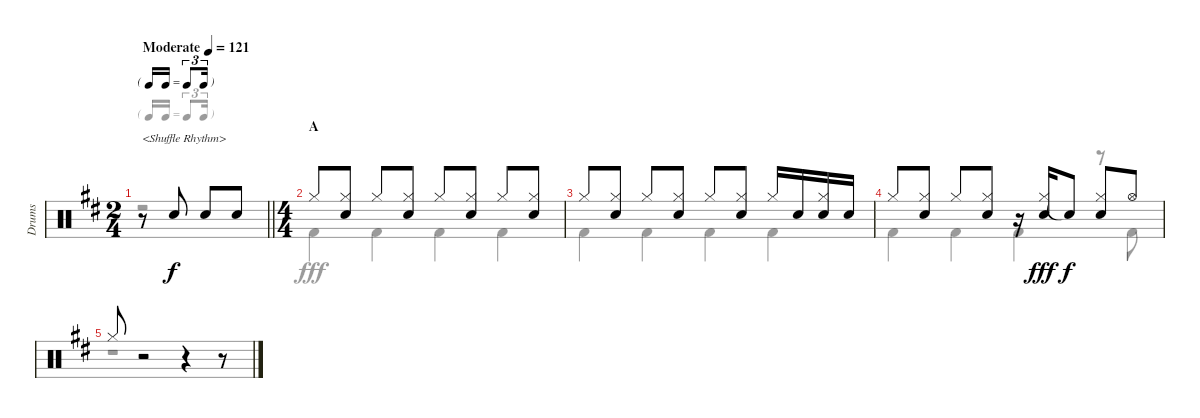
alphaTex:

\track ("Drums" "Drums") {instrument percussion}
\staff {score}
\articulation defaults
\voice
\ts (2 4)
\tf triplet16th
\tempo (121 "Moderate")
\clef neutral
\barLineRight lightlight
\ks d
r.8{txt "<Shuffle Rhythm>" dy f} "Electric Snare (hit)".8 "Electric Snare (hit)".8 "Electric Snare (hit)".8 |
\ts (4 4)
\section ("" "A")
"Hi-Hat (closed)".8 ("Hi-Hat (closed)" "Electric Snare (hit)").8 "Hi-Hat (closed)".8 ("Hi-Hat (closed)" "Electric Snare (hit)").8 "Hi-Hat (closed)".8 ("Hi-Hat (closed)" "Electric Snare (hit)").8 "Hi-Hat (closed)".8 ("Hi-Hat (closed)" "Electric Snare (hit)").8 |
"Hi-Hat (closed)".8 ("Hi-Hat (closed)" "Electric Snare (hit)").8 "Hi-Hat (closed)".8 ("Hi-Hat (closed)" "Electric Snare (hit)").8 "Hi-Hat (closed)".8 ("Hi-Hat (closed)" "Electric Snare (hit)").8 "Hi-Hat (closed)".16 "Electric Snare (hit)".16 ("Hi-Hat (closed)" "Electric Snare (hit)").16 "Electric Snare (hit)".16 |
"Hi-Hat (closed)".8 ("Hi-Hat (closed)" "Electric Snare (hit)").8 "Hi-Hat (closed)".8 ("Hi-Hat (closed)" "Electric Snare (hit)").8 r.16 ("Hi-Hat (closed)" "Electric Snare (hit)").16{dy fff} "Snare (hit)"{t}.8{dy f} ("Hi-Hat (closed)" "Electric Snare (hit)").8 "Hi-Hat (open)".8 |
"Hi-Hat (closed)".8 r.2 r.4 r.8
\voice
\clef neutral
\ottava regular
\simile none
\barLineRight lightlight
\ks d
r.2{dy fff} |
"Kick (hit) 2".4 "Kick (hit) 2".4 "Kick (hit) 2".4 "Kick (hit) 2".4 |
"Kick (hit) 2".4 "Kick (hit) 2".4 "Kick (hit) 2".4 "Kick (hit) 2".4 |
"Kick (hit) 2".4 "Kick (hit) 2".4 "Kick (hit) 2".4 r.8 "Kick (hit) 2".8 |
r.1
